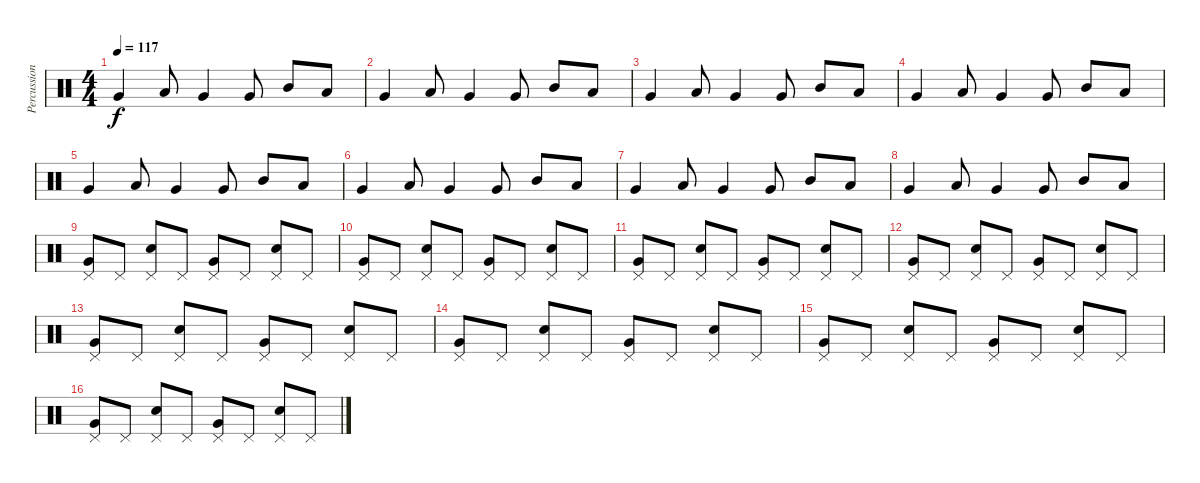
\track ("Percussion" "Percussion") {instrument percussion}
\staff {score}
\articulation defaults
\ts (4 4)
\tempo 117
\clef neutral
\ks c "Very Low Tom (hit)".4{dy f} "Low Tom (hit)".8 "Very Low Tom (hit)".4 "Very Low Tom (hit)".8 "Mid Tom (hit)".8 "Low Tom (hit)".8
|
"Very Low Tom (hit)".4 "Low Tom (hit)".8 "Very Low Tom (hit)".4 "Very Low Tom (hit)".8 "Mid Tom (hit)".8 "Low Tom (hit)".8 |
"Very Low Tom (hit)".4 "Low Tom (hit)".8 "Very Low Tom (hit)".4 "Very Low Tom (hit)".8 "Mid Tom (hit)".8 "Low Tom (hit)".8 |
"Very Low Tom (hit)".4 "Low Tom (hit)".8 "Very Low Tom (hit)".4 "Very Low Tom (hit)".8 "Mid Tom (hit)".8 "Low Tom (hit)".8 |
"Very Low Tom (hit)".4 "Low Tom (hit)".8 "Very Low Tom (hit)".4 "Very Low Tom (hit)".8 "Mid Tom (hit)".8 "Low Tom (hit)".8 |
"Very Low Tom (hit)".4 "Low Tom (hit)".8 "Very Low Tom (hit)".4 "Very Low Tom (hit)".8 "Mid Tom (hit)".8 "Low Tom (hit)".8 |
"Very Low Tom (hit)".4 "Low Tom (hit)".8 "Very Low Tom (hit)".4 "Very Low Tom (hit)".8 "Mid Tom (hit)".8 "Low Tom (hit)".8 |
"Very Low Tom (hit)".4 "Low Tom (hit)".8 "Very Low Tom (hit)".4 "Very Low Tom (hit)".8 "Mid Tom (hit)".8 "Low Tom (hit)".8 |
("Very Low Tom (hit)" "Pedal Hi-Hat (hit)").8 "Pedal Hi-Hat (hit)".8 ("Electric Snare (hit)" "Pedal Hi-Hat (hit)").8 "Pedal Hi-Hat (hit)".8 ("Very Low Tom (hit)" "Pedal Hi-Hat (hit)").8 "Pedal Hi-Hat (hit)".8 ("Electric Snare (hit)" "Pedal Hi-Hat (hit)").8 "Pedal Hi-Hat (hit)".8 |
("Very Low Tom (hit)" "Pedal Hi-Hat (hit)").8 "Pedal Hi-Hat (hit)".8 ("Electric Snare (hit)" "Pedal Hi-Hat (hit)").8 "Pedal Hi-Hat (hit)".8 ("Very Low Tom (hit)" "Pedal Hi-Hat (hit)").8 "Pedal Hi-Hat (hit)".8 ("Electric Snare (hit)" "Pedal Hi-Hat (hit)").8 "Pedal Hi-Hat (hit)".8 |
("Very Low Tom (hit)" "Pedal Hi-Hat (hit)").8 "Pedal Hi-Hat (hit)".8 ("Electric Snare (hit)" "Pedal Hi-Hat (hit)").8 "Pedal Hi-Hat (hit)".8 ("Very Low Tom (hit)" "Pedal Hi-Hat (hit)").8 "Pedal Hi-Hat (hit)".8 ("Electric Snare (hit)" "Pedal Hi-Hat (hit)").8 "Pedal Hi-Hat (hit)".8 |
("Very Low Tom (hit)" "Pedal Hi-Hat (hit)").8 "Pedal Hi-Hat (hit)".8 ("Electric Snare (hit)" "Pedal Hi-Hat (hit)").8 "Pedal Hi-Hat (hit)".8 ("Very Low Tom (hit)" "Pedal Hi-Hat (hit)").8 "Pedal Hi-Hat (hit)".8 ("Electric Snare (hit)" "Pedal Hi-Hat (hit)").8 "Pedal Hi-Hat (hit)".8 |
("Very Low Tom (hit)" "Pedal Hi-Hat (hit)").8 "Pedal Hi-Hat (hit)".8 ("Electric Snare (hit)" "Pedal Hi-Hat (hit)").8 "Pedal Hi-Hat (hit)".8 ("Very Low Tom (hit)" "Pedal Hi-Hat (hit)").8 "Pedal Hi-Hat (hit)".8 ("Electric Snare (hit)" "Pedal Hi-Hat (hit)").8 "Pedal Hi-Hat (hit)".8 |
("Very Low Tom (hit)" "Pedal Hi-Hat (hit)").8 "Pedal Hi-Hat (hit)".8 ("Electric Snare (hit)" "Pedal Hi-Hat (hit)").8 "Pedal Hi-Hat (hit)".8 ("Very Low Tom (hit)" "Pedal Hi-Hat (hit)").8 "Pedal Hi-Hat (hit)".8 ("Electric Snare (hit)" "Pedal Hi-Hat (hit)").8 "Pedal Hi-Hat (hit)".8 |
("Very Low Tom (hit)" "Pedal Hi-Hat (hit)").8 "Pedal Hi-Hat (hit)".8 ("Electric Snare (hit)" "Pedal Hi-Hat (hit)").8 "Pedal Hi-Hat (hit)".8 ("Very Low Tom (hit)" "Pedal Hi-Hat (hit)").8 "Pedal Hi-Hat (hit)".8 ("Electric Snare (hit)" "Pedal Hi-Hat (hit)").8 "Pedal Hi-Hat (hit)".8 |
("Very Low Tom (hit)" "Pedal Hi-Hat (hit)").8 "Pedal Hi-Hat (hit)".8 ("Electric Snare (hit)" "Pedal Hi-Hat (hit)").8 "Pedal Hi-Hat (hit)".8 ("Very Low Tom (hit)" "Pedal Hi-Hat (hit)").8 "Pedal Hi-Hat (hit)".8 ("Electric Snare (hit)" "Pedal Hi-Hat (hit)").8 "Pedal Hi-Hat (hit)".8
